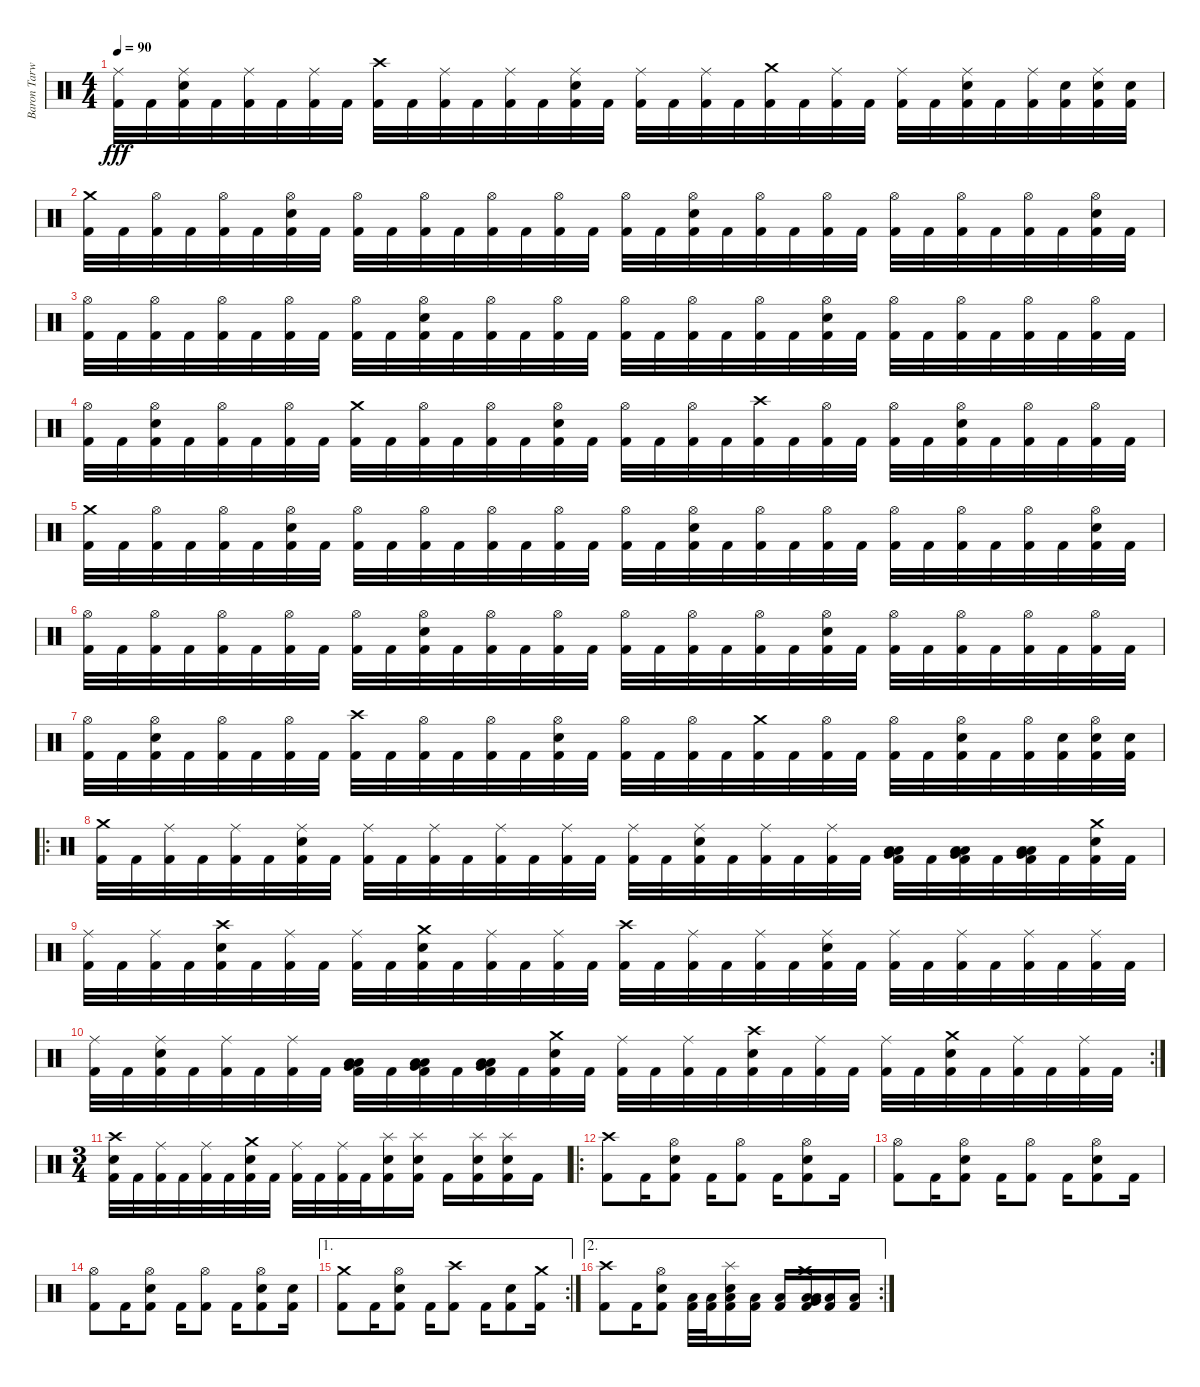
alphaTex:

\track ("Baron Tarwonen" "Baron Tarw") {instrument percussion}
\staff {score}
\articulation defaults
\ts (4 4)
\tempo 90
\clef neutral
\ks c
("Ride (middle)" "Kick (hit) 2").32{dy fff} "Kick (hit) 2".32 ("Ride (middle)" "Snare (hit) 2" "Kick (hit) 2").32 "Kick (hit) 2".32 ("Ride (middle)" "Kick (hit) 2").32 "Kick (hit) 2".32 ("Ride (middle)" "Kick (hit) 2").32 "Kick (hit) 2".32 ("Crash high (hit)" "Kick (hit) 2").32 "Kick (hit) 2".32 ("Ride (middle)" "Kick (hit) 2").32 "Kick (hit) 2".32 ("Ride (middle)" "Kick (hit) 2").32 "Kick (hit) 2".32 ("Ride (middle)" "Snare (hit) 2" "Kick (hit) 2").32 "Kick (hit) 2".32 ("Ride (middle)" "Kick (hit) 2").32 "Kick (hit) 2".32 ("Ride (middle)" "Kick (hit) 2").32 "Kick (hit) 2".32 ("Crash medium (hit)" "Kick (hit) 2").32 "Kick (hit) 2".32 ("Ride (middle)" "Kick (hit) 2").32 "Kick (hit) 2".32 ("Ride (middle)" "Kick (hit) 2").32 "Kick (hit) 2".32 ("Ride (middle)" "Snare (hit) 2" "Kick (hit) 2").32 "Kick (hit) 2".32 ("Ride (middle)" "Kick (hit) 2").32 ("Snare (hit) 2" "Kick (hit) 2").32 ("Ride (middle)" "Snare (hit) 2" "Kick (hit) 2").32 ("Snare (hit) 2" "Kick (hit) 2").32 |
("Crash medium (hit)" "Kick (hit) 2").32 "Kick (hit) 2".32 ("Hi-Hat (open)" "Kick (hit) 2").32 "Kick (hit) 2".32 ("Hi-Hat (open)" "Kick (hit) 2").32 "Kick (hit) 2".32 ("Hi-Hat (open)" "Snare (hit) 2" "Kick (hit) 2").32 "Kick (hit) 2".32 ("Hi-Hat (open)" "Kick (hit) 2").32 "Kick (hit) 2".32 ("Hi-Hat (open)" "Kick (hit) 2").32 "Kick (hit) 2".32 ("Hi-Hat (open)" "Kick (hit) 2").32 "Kick (hit) 2".32 ("Hi-Hat (open)" "Kick (hit) 2").32 "Kick (hit) 2".32 ("Hi-Hat (open)" "Kick (hit) 2").32 "Kick (hit) 2".32 ("Hi-Hat (open)" "Snare (hit) 2" "Kick (hit) 2").32 "Kick (hit) 2".32 ("Hi-Hat (open)" "Kick (hit) 2").32 "Kick (hit) 2".32 ("Hi-Hat (open)" "Kick (hit) 2").32 "Kick (hit) 2".32 ("Hi-Hat (open)" "Kick (hit) 2").32 "Kick (hit) 2".32 ("Hi-Hat (open)" "Kick (hit) 2").32 "Kick (hit) 2".32 ("Hi-Hat (open)" "Kick (hit) 2").32 "Kick (hit) 2".32 ("Hi-Hat (open)" "Snare (hit) 2" "Kick (hit) 2").32 "Kick (hit) 2".32 |
("Hi-Hat (open)" "Kick (hit) 2").32 "Kick (hit) 2".32 ("Hi-Hat (open)" "Kick (hit) 2").32 "Kick (hit) 2".32 ("Hi-Hat (open)" "Kick (hit) 2").32 "Kick (hit) 2".32 ("Hi-Hat (open)" "Kick (hit) 2").32 "Kick (hit) 2".32 ("Hi-Hat (open)" "Kick (hit) 2").32 "Kick (hit) 2".32 ("Hi-Hat (open)" "Snare (hit) 2" "Kick (hit) 2").32 "Kick (hit) 2".32 ("Hi-Hat (open)" "Kick (hit) 2").32 "Kick (hit) 2".32 ("Hi-Hat (open)" "Kick (hit) 2").32 "Kick (hit) 2".32 ("Hi-Hat (open)" "Kick (hit) 2").32 "Kick (hit) 2".32 ("Hi-Hat (open)" "Kick (hit) 2").32 "Kick (hit) 2".32 ("Hi-Hat (open)" "Kick (hit) 2").32 "Kick (hit) 2".32 ("Hi-Hat (open)" "Snare (hit) 2" "Kick (hit) 2").32 "Kick (hit) 2".32 ("Hi-Hat (open)" "Kick (hit) 2").32 "Kick (hit) 2".32 ("Hi-Hat (open)" "Kick (hit) 2").32 "Kick (hit) 2".32 ("Hi-Hat (open)" "Kick (hit) 2").32 "Kick (hit) 2".32 ("Hi-Hat (open)" "Kick (hit) 2").32 "Kick (hit) 2".32 |
("Hi-Hat (open)" "Kick (hit) 2").32 "Kick (hit) 2".32 ("Hi-Hat (open)" "Snare (hit) 2" "Kick (hit) 2").32 "Kick (hit) 2".32 ("Hi-Hat (open)" "Kick (hit) 2").32 "Kick (hit) 2".32 ("Hi-Hat (open)" "Kick (hit) 2").32 "Kick (hit) 2".32 ("Crash medium (hit)" "Kick (hit) 2").32 "Kick (hit) 2".32 ("Hi-Hat (open)" "Kick (hit) 2").32 "Kick (hit) 2".32 ("Hi-Hat (open)" "Kick (hit) 2").32 "Kick (hit) 2".32 ("Hi-Hat (open)" "Snare (hit) 2" "Kick (hit) 2").32 "Kick (hit) 2".32 ("Hi-Hat (open)" "Kick (hit) 2").32 "Kick (hit) 2".32 ("Hi-Hat (open)" "Kick (hit) 2").32 "Kick (hit) 2".32 ("Crash high (hit)" "Kick (hit) 2").32 "Kick (hit) 2".32 ("Hi-Hat (open)" "Kick (hit) 2").32 "Kick (hit) 2".32 ("Hi-Hat (open)" "Kick (hit) 2").32 "Kick (hit) 2".32 ("Hi-Hat (open)" "Snare (hit) 2" "Kick (hit) 2").32 "Kick (hit) 2".32 ("Hi-Hat (open)" "Kick (hit) 2").32 "Kick (hit) 2".32 ("Hi-Hat (open)" "Kick (hit) 2").32 "Kick (hit) 2".32 |
("Crash medium (hit)" "Kick (hit) 2").32 "Kick (hit) 2".32 ("Hi-Hat (open)" "Kick (hit) 2").32 "Kick (hit) 2".32 ("Hi-Hat (open)" "Kick (hit) 2").32 "Kick (hit) 2".32 ("Hi-Hat (open)" "Snare (hit) 2" "Kick (hit) 2").32 "Kick (hit) 2".32 ("Hi-Hat (open)" "Kick (hit) 2").32 "Kick (hit) 2".32 ("Hi-Hat (open)" "Kick (hit) 2").32 "Kick (hit) 2".32 ("Hi-Hat (open)" "Kick (hit) 2").32 "Kick (hit) 2".32 ("Hi-Hat (open)" "Kick (hit) 2").32 "Kick (hit) 2".32 ("Hi-Hat (open)" "Kick (hit) 2").32 "Kick (hit) 2".32 ("Hi-Hat (open)" "Snare (hit) 2" "Kick (hit) 2").32 "Kick (hit) 2".32 ("Hi-Hat (open)" "Kick (hit) 2").32 "Kick (hit) 2".32 ("Hi-Hat (open)" "Kick (hit) 2").32 "Kick (hit) 2".32 ("Hi-Hat (open)" "Kick (hit) 2").32 "Kick (hit) 2".32 ("Hi-Hat (open)" "Kick (hit) 2").32 "Kick (hit) 2".32 ("Hi-Hat (open)" "Kick (hit) 2").32 "Kick (hit) 2".32 ("Hi-Hat (open)" "Snare (hit) 2" "Kick (hit) 2").32 "Kick (hit) 2".32 |
("Hi-Hat (open)" "Kick (hit) 2").32 "Kick (hit) 2".32 ("Hi-Hat (open)" "Kick (hit) 2").32 "Kick (hit) 2".32 ("Hi-Hat (open)" "Kick (hit) 2").32 "Kick (hit) 2".32 ("Hi-Hat (open)" "Kick (hit) 2").32 "Kick (hit) 2".32 ("Hi-Hat (open)" "Kick (hit) 2").32 "Kick (hit) 2".32 ("Hi-Hat (open)" "Snare (hit) 2" "Kick (hit) 2").32 "Kick (hit) 2".32 ("Hi-Hat (open)" "Kick (hit) 2").32 "Kick (hit) 2".32 ("Hi-Hat (open)" "Kick (hit) 2").32 "Kick (hit) 2".32 ("Hi-Hat (open)" "Kick (hit) 2").32 "Kick (hit) 2".32 ("Hi-Hat (open)" "Kick (hit) 2").32 "Kick (hit) 2".32 ("Hi-Hat (open)" "Kick (hit) 2").32 "Kick (hit) 2".32 ("Hi-Hat (open)" "Snare (hit) 2" "Kick (hit) 2").32 "Kick (hit) 2".32 ("Hi-Hat (open)" "Kick (hit) 2").32 "Kick (hit) 2".32 ("Hi-Hat (open)" "Kick (hit) 2").32 "Kick (hit) 2".32 ("Hi-Hat (open)" "Kick (hit) 2").32 "Kick (hit) 2".32 ("Hi-Hat (open)" "Kick (hit) 2").32 "Kick (hit) 2".32 |
("Hi-Hat (open)" "Kick (hit) 2").32 "Kick (hit) 2".32 ("Hi-Hat (open)" "Snare (hit) 2" "Kick (hit) 2").32 "Kick (hit) 2".32 ("Hi-Hat (open)" "Kick (hit) 2").32 "Kick (hit) 2".32 ("Hi-Hat (open)" "Kick (hit) 2").32 "Kick (hit) 2".32 ("Crash high (hit)" "Kick (hit) 2").32 "Kick (hit) 2".32 ("Hi-Hat (open)" "Kick (hit) 2").32 "Kick (hit) 2".32 ("Hi-Hat (open)" "Kick (hit) 2").32 "Kick (hit) 2".32 ("Hi-Hat (open)" "Snare (hit) 2" "Kick (hit) 2").32 "Kick (hit) 2".32 ("Hi-Hat (open)" "Kick (hit) 2").32 "Kick (hit) 2".32 ("Hi-Hat (open)" "Kick (hit) 2").32 "Kick (hit) 2".32 ("Crash medium (hit)" "Kick (hit) 2").32 "Kick (hit) 2".32 ("Hi-Hat (open)" "Kick (hit) 2").32 "Kick (hit) 2".32 ("Hi-Hat (open)" "Kick (hit) 2").32 "Kick (hit) 2".32 ("Hi-Hat (open)" "Snare (hit) 2" "Kick (hit) 2").32 "Kick (hit) 2".32 ("Hi-Hat (open)" "Kick (hit) 2").32 ("Snare (hit) 2" "Kick (hit) 2").32 ("Hi-Hat (open)" "Snare (hit) 2" "Kick (hit) 2").32 ("Snare (hit) 2" "Kick (hit) 2").32 |
\ro
("Crash medium (hit)" "Kick (hit) 2").32 "Kick (hit) 2".32 ("Ride (middle)" "Kick (hit) 2").32 "Kick (hit) 2".32 ("Ride (middle)" "Kick (hit) 2").32 "Kick (hit) 2".32 ("Ride (middle)" "Snare (hit) 2" "Kick (hit) 2").32 "Kick (hit) 2".32 ("Ride (middle)" "Kick (hit) 2").32 "Kick (hit) 2".32 ("Ride (middle)" "Kick (hit) 2").32 "Kick (hit) 2".32 ("Ride (middle)" "Kick (hit) 2").32 "Kick (hit) 2".32 ("Ride (middle)" "Kick (hit) 2").32 "Kick (hit) 2".32 ("Ride (middle)" "Kick (hit) 2").32 "Kick (hit) 2".32 ("Ride (middle)" "Snare (hit) 2" "Kick (hit) 2").32 "Kick (hit) 2".32 ("Ride (middle)" "Kick (hit) 2").32 "Kick (hit) 2".32 ("Ride (middle)" "Kick (hit) 2").32 "Kick (hit) 2".32 ("Low Tom (hit)" "Low Floor Tom (hit)" "Very Low Tom (hit)" "Kick (hit) 2").32 "Kick (hit) 2".32 ("Low Tom (hit)" "Low Floor Tom (hit)" "Very Low Tom (hit)" "Kick (hit) 2").32 "Kick (hit) 2".32 ("Low Tom (hit)" "Low Floor Tom (hit)" "Very Low Tom (hit)" "Kick (hit) 2").32 "Kick (hit) 2".32 ("Crash medium (hit)" "Snare (hit) 2" "Kick (hit) 2").32 "Kick (hit) 2".32 |
("Ride (middle)" "Kick (hit) 2").32 "Kick (hit) 2".32 ("Ride (middle)" "Kick (hit) 2").32 "Kick (hit) 2".32 ("Crash high (hit)" "Snare (hit) 2" "Kick (hit) 2").32 "Kick (hit) 2".32 ("Ride (middle)" "Kick (hit) 2").32 "Kick (hit) 2".32 ("Ride (middle)" "Kick (hit) 2").32 "Kick (hit) 2".32 ("Crash medium (hit)" "Snare (hit) 2" "Kick (hit) 2").32 "Kick (hit) 2".32 ("Ride (middle)" "Kick (hit) 2").32 "Kick (hit) 2".32 ("Ride (middle)" "Kick (hit) 2").32 "Kick (hit) 2".32 ("Crash high (hit)" "Kick (hit) 2").32 "Kick (hit) 2".32 ("Ride (middle)" "Kick (hit) 2").32 "Kick (hit) 2".32 ("Ride (middle)" "Kick (hit) 2").32 "Kick (hit) 2".32 ("Ride (middle)" "Snare (hit) 2" "Kick (hit) 2").32 "Kick (hit) 2".32 ("Ride (middle)" "Kick (hit) 2").32 "Kick (hit) 2".32 ("Ride (middle)" "Kick (hit) 2").32 "Kick (hit) 2".32 ("Ride (middle)" "Kick (hit) 2").32 "Kick (hit) 2".32 ("Ride (middle)" "Kick (hit) 2").32 "Kick (hit) 2".32 |
\rc 2
("Ride (middle)" "Kick (hit) 2").32 "Kick (hit) 2".32 ("Ride (middle)" "Snare (hit) 2" "Kick (hit) 2").32 "Kick (hit) 2".32 ("Ride (middle)" "Kick (hit) 2").32 "Kick (hit) 2".32 ("Ride (middle)" "Kick (hit) 2").32 "Kick (hit) 2".32 ("Low Tom (hit)" "Very Low Tom (hit)" "Low Floor Tom (hit)" "Kick (hit) 2").32 "Kick (hit) 2".32 ("Low Tom (hit)" "Very Low Tom (hit)" "Low Floor Tom (hit)" "Kick (hit) 2").32 "Kick (hit) 2".32 ("Low Tom (hit)" "Very Low Tom (hit)" "Low Floor Tom (hit)" "Kick (hit) 2").32 "Kick (hit) 2".32 ("Crash medium (hit)" "Snare (hit) 2" "Kick (hit) 2").32 "Kick (hit) 2".32 ("Ride (middle)" "Kick (hit) 2").32 "Kick (hit) 2".32 ("Ride (middle)" "Kick (hit) 2").32 "Kick (hit) 2".32 ("Crash high (hit)" "Snare (hit) 2" "Kick (hit) 2").32 "Kick (hit) 2".32 ("Ride (middle)" "Kick (hit) 2").32 "Kick (hit) 2".32 ("Ride (middle)" "Kick (hit) 2").32 "Kick (hit) 2".32 ("Crash medium (hit)" "Snare (hit) 2" "Kick (hit) 2").32 "Kick (hit) 2".32 ("Ride (middle)" "Kick (hit) 2").32 "Kick (hit) 2".32 ("Ride (middle)" "Kick (hit) 2").32 "Kick (hit) 2".32 |
\ts (3 4)
("Crash high (hit)" "Snare (hit) 2" "Kick (hit) 2").32 "Kick (hit) 2".32 ("Ride (middle)" "Kick (hit) 2").32 "Kick (hit) 2".32 ("Ride (middle)" "Kick (hit) 2").32 "Kick (hit) 2".32 ("Crash medium (hit)" "Snare (hit) 2" "Kick (hit) 2").32 "Kick (hit) 2".32 ("Ride (middle)" "Kick (hit) 2").32 "Kick (hit) 2".32 ("Ride (middle)" "Kick (hit) 2").32 "Kick (hit) 2".32 ("Splash (hit)" "Snare (hit) 2" "Kick (hit) 2").16 ("Splash (hit)" "Snare (hit) 2" "Kick (hit) 2").16 "Kick (hit) 2".16 ("Splash (hit)" "Snare (hit) 2" "Kick (hit) 2").16 ("Splash (hit)" "Snare (hit) 2" "Kick (hit) 2").16 "Kick (hit) 2".16 |
\ro
("Crash high (hit)" "Kick (hit) 2").8 "Kick (hit) 2".16 ("Hi-Hat (open)" "Snare (hit) 2" "Kick (hit) 2").8 "Kick (hit) 2".16 ("Hi-Hat (open)" "Kick (hit) 2").8 "Kick (hit) 2".16 ("Hi-Hat (open)" "Snare (hit) 2" "Kick (hit) 2").8 "Kick (hit) 2".16 |
("Hi-Hat (open)" "Kick (hit) 2").8 "Kick (hit) 2".16 ("Hi-Hat (open)" "Snare (hit) 2" "Kick (hit) 2").8 "Kick (hit) 2".16 ("Hi-Hat (open)" "Kick (hit) 2").8 "Kick (hit) 2".16 ("Hi-Hat (open)" "Snare (hit) 2" "Kick (hit) 2").8 "Kick (hit) 2".16 |
("Hi-Hat (open)" "Kick (hit) 2").8 "Kick (hit) 2".16 ("Hi-Hat (open)" "Snare (hit) 2" "Kick (hit) 2").8 "Kick (hit) 2".16 ("Hi-Hat (open)" "Kick (hit) 2").8 "Kick (hit) 2".16 ("Hi-Hat (open)" "Snare (hit) 2" "Kick (hit) 2").8 ("Snare (hit) 2" "Kick (hit) 2").16 |
\ae 1
\rc 2
("Crash medium (hit)" "Kick (hit) 2").8 "Kick (hit) 2".16 ("Hi-Hat (open)" "Snare (hit) 2" "Kick (hit) 2").8 "Kick (hit) 2".16 ("Crash high (hit)" "Kick (hit) 2").8 "Kick (hit) 2".16 ("Snare (hit) 2" "Kick (hit) 2").8 ("Crash medium (hit)" "Kick (hit) 2").16 |
\ae 2
\rc 2
("Crash high (hit)" "Kick (hit) 2").8 "Kick (hit) 2".16 ("Hi-Hat (open)" "Snare (hit) 2" "Kick (hit) 2").8 ("Low Floor Tom (hit)" "Kick (hit) 2").32 ("Low Floor Tom (hit)" "Kick (hit) 2").32 ("Splash (hit)" "Snare (hit) 2" "Low Floor Tom (hit)" "Kick (hit) 2").16 ("Low Floor Tom (hit)" "Kick (hit) 2").16 ("Low Floor Tom (hit)" "Kick (hit) 2").16 ("Crash medium (hit)" "Very Low Tom (hit)" "Low Floor Tom (hit)" "Low Floor Tom (hit)" "Kick (hit) 2").16 ("Low Floor Tom (hit)" "Kick (hit) 2").16 ("Low Floor Tom (hit)" "Kick (hit) 2").16
